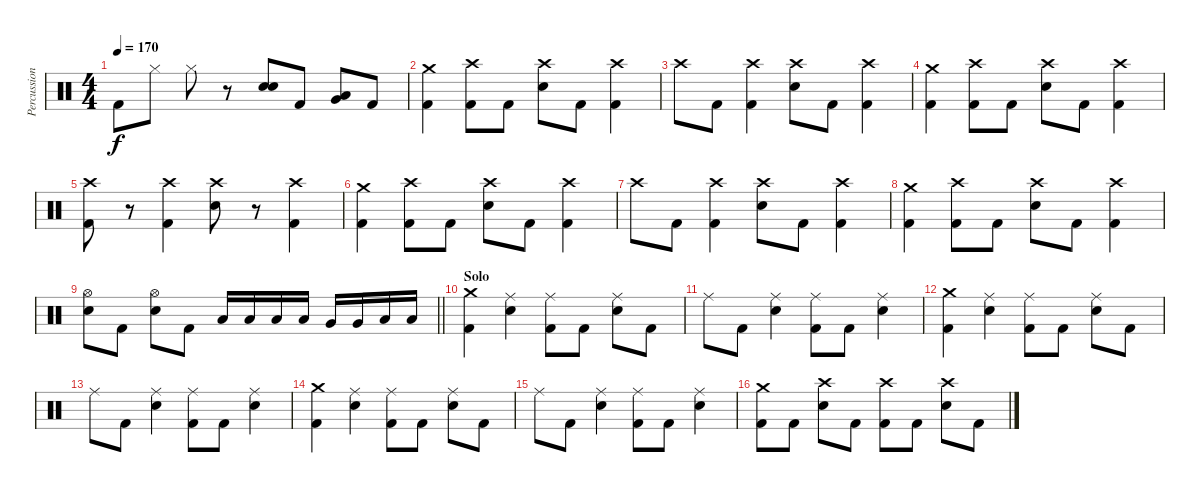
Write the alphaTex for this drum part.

\track ("Percussions" "Percussion") {instrument percussion}
\staff {score}
\articulation defaults
\ts (4 4)
\tempo 170
\clef neutral
\ks c "Kick (hit) 2".8{dy f} "Hi-Hat (closed)".8 "Hi-Hat (closed)".8
r.8 ("Electric Snare (hit)" "Electric Snare (hit)").8 "Kick (hit) 2".8 ("Very Low Tom (hit)" "Low Floor Tom (hit)").8 "Kick (hit) 2".8 |
("Crash medium (hit)" "Kick (hit) 2").4 ("Crash high (hit)" "Kick (hit) 2").8 "Kick (hit) 2".8 ("Crash high (hit)" "Electric Snare (hit)").8 "Kick (hit) 2".8 ("Crash high (hit)" "Kick (hit) 2").4 |
"Crash high (hit)".8 "Kick (hit) 2".8 ("Crash high (hit)" "Kick (hit) 2").4 ("Crash high (hit)" "Electric Snare (hit)").8 "Kick (hit) 2".8 ("Crash high (hit)" "Kick (hit) 2").4 |
("Crash medium (hit)" "Kick (hit) 2").4 ("Crash high (hit)" "Kick (hit) 2").8 "Kick (hit) 2".8 ("Crash high (hit)" "Electric Snare (hit)").8 "Kick (hit) 2".8 ("Crash high (hit)" "Kick (hit) 2").4 |
("Crash high (hit)" "Kick (hit) 2").8 r.8 ("Crash high (hit)" "Kick (hit) 2").4 ("Crash high (hit)" "Electric Snare (hit)").8 r.8 ("Crash high (hit)" "Kick (hit) 2").4 |
("Crash medium (hit)" "Kick (hit) 2").4 ("Crash high (hit)" "Kick (hit) 2").8 "Kick (hit) 2".8 ("Crash high (hit)" "Electric Snare (hit)").8 "Kick (hit) 2".8 ("Crash high (hit)" "Kick (hit) 2").4 |
"Crash high (hit)".8 "Kick (hit) 2".8 ("Crash high (hit)" "Kick (hit) 2").4 ("Crash high (hit)" "Electric Snare (hit)").8 "Kick (hit) 2".8 ("Crash high (hit)" "Kick (hit) 2").4 |
("Crash medium (hit)" "Kick (hit) 2").4 ("Crash high (hit)" "Kick (hit) 2").8 "Kick (hit) 2".8 ("Crash high (hit)" "Electric Snare (hit)").8 "Kick (hit) 2".8 ("Crash high (hit)" "Kick (hit) 2").4 |
\barLineRight lightlight
("Hi-Hat (open)" "Electric Snare (hit)").8 "Kick (hit) 2".8 ("Hi-Hat (open)" "Electric Snare (hit)").8 "Kick (hit) 2".8 "Low Tom (hit)".16 "Low Tom (hit)".16 "Low Tom (hit)".16 "Low Tom (hit)".16 "Very Low Tom (hit)".16 "Very Low Tom (hit)".16 "Low Floor Tom (hit)".16 "Low Floor Tom (hit)".16 |
\section ("" "Solo")
("Crash medium (hit)" "Kick (hit) 2").4 ("Ride (middle)" "Electric Snare (hit)").4 ("Ride (middle)" "Kick (hit) 2").8 "Kick (hit) 2".8 ("Ride (middle)" "Electric Snare (hit)").8 "Kick (hit) 2".8 |
"Ride (middle)".8 "Kick (hit) 2".8 ("Ride (middle)" "Electric Snare (hit)").4 ("Ride (middle)" "Kick (hit) 2").8 "Kick (hit) 2".8 ("Ride (middle)" "Electric Snare (hit)").4 |
("Crash medium (hit)" "Kick (hit) 2").4 ("Ride (middle)" "Electric Snare (hit)").4 ("Ride (middle)" "Kick (hit) 2").8 "Kick (hit) 2".8 ("Ride (middle)" "Electric Snare (hit)").8 "Kick (hit) 2".8 |
"Ride (middle)".8 "Kick (hit) 2".8 ("Ride (middle)" "Electric Snare (hit)").4 ("Ride (middle)" "Kick (hit) 2").8 "Kick (hit) 2".8 ("Ride (middle)" "Electric Snare (hit)").4 |
("Crash medium (hit)" "Kick (hit) 2").4 ("Ride (middle)" "Electric Snare (hit)").4 ("Ride (middle)" "Kick (hit) 2").8 "Kick (hit) 2".8 ("Ride (middle)" "Electric Snare (hit)").8 "Kick (hit) 2".8 |
"Ride (middle)".8 "Kick (hit) 2".8 ("Ride (middle)" "Electric Snare (hit)").4 ("Ride (middle)" "Kick (hit) 2").8 "Kick (hit) 2".8 ("Ride (middle)" "Electric Snare (hit)").4 |
("Crash medium (hit)" "Kick (hit) 2").8 "Kick (hit) 2".8 ("Crash high (hit)" "Electric Snare (hit)").8 "Kick (hit) 2".8 ("Crash high (hit)" "Kick (hit) 2").8 "Kick (hit) 2".8 ("Crash high (hit)" "Electric Snare (hit)").8 "Kick (hit) 2".8
